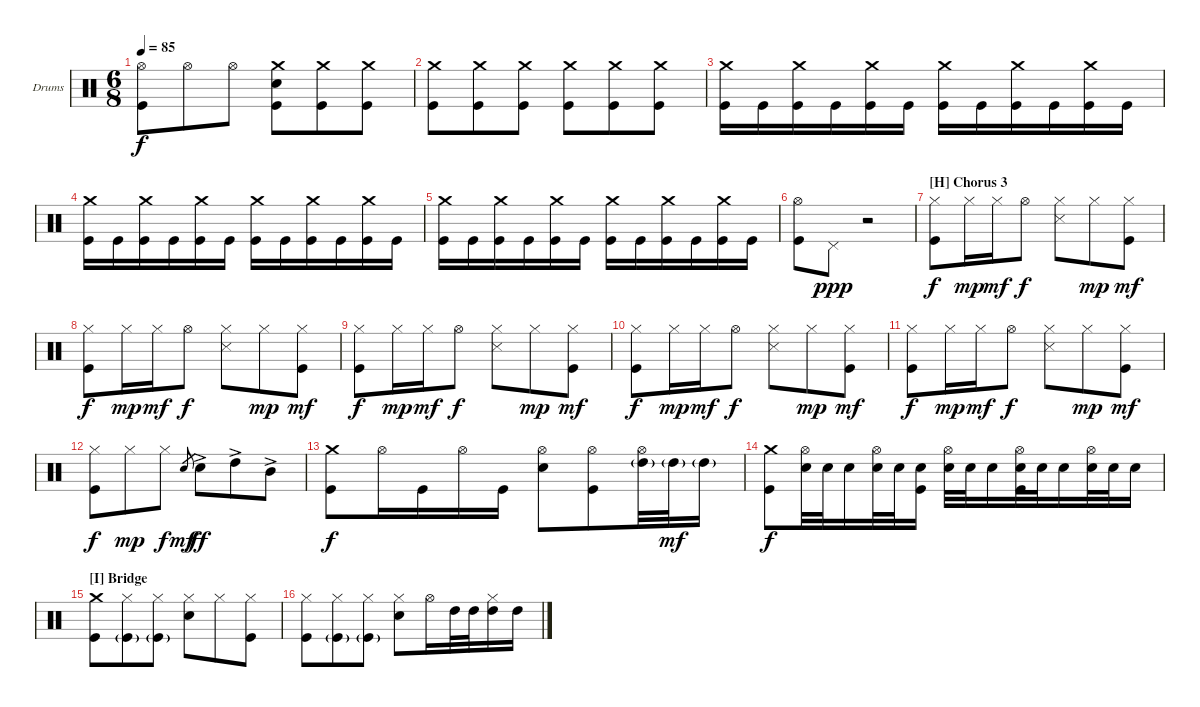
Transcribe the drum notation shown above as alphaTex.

\defaultSystemsLayout 4
\bracketExtendMode groupsimilarinstruments
\firstSystemTrackNameOrientation horizontal
\otherSystemsTrackNameOrientation horizontal
\track ("Drums" "Drums") {instrument percussion}
\staff {score}
\articulation defaults
\ts (6 8)
\tempo 85
\clef neutral
\ks c
("Hi-Hat (open)" "Kick (hit)").8{dy f} "Hi-Hat (open)".8 "Hi-Hat (open)".8 ("Crash medium (hit)" "Snare (hit) 2" "Kick (hit)").8 ("Crash medium (hit)" "Kick (hit)").8 ("Crash medium (hit)" "Kick (hit)").8 |
("Crash medium (hit)" "Kick (hit)").8 ("Crash medium (hit)" "Kick (hit)").8 ("Crash medium (hit)" "Kick (hit)").8 ("Crash medium (hit)" "Kick (hit)").8 ("Crash medium (hit)" "Kick (hit)").8 ("Crash medium (hit)" "Kick (hit)").8 |
("Crash medium (hit)" "Kick (hit)").16 "Kick (hit)".16 ("Crash medium (hit)" "Kick (hit)").16 "Kick (hit)".16 ("Crash medium (hit)" "Kick (hit)").16 "Kick (hit)".16 ("Crash medium (hit)" "Kick (hit)").16 "Kick (hit)".16 ("Crash medium (hit)" "Kick (hit)").16 "Kick (hit)".16 ("Crash medium (hit)" "Kick (hit)").16 "Kick (hit)".16 |
("Crash medium (hit)" "Kick (hit)").16 "Kick (hit)".16 ("Crash medium (hit)" "Kick (hit)").16 "Kick (hit)".16 ("Crash medium (hit)" "Kick (hit)").16 "Kick (hit)".16 ("Crash medium (hit)" "Kick (hit)").16 "Kick (hit)".16 ("Crash medium (hit)" "Kick (hit)").16 "Kick (hit)".16 ("Crash medium (hit)" "Kick (hit)").16 "Kick (hit)".16 |
("Crash medium (hit)" "Kick (hit)").16 "Kick (hit)".16 ("Crash medium (hit)" "Kick (hit)").16 "Kick (hit)".16 ("Crash medium (hit)" "Kick (hit)").16 "Kick (hit)".16 ("Crash medium (hit)" "Kick (hit)").16 "Kick (hit)".16 ("Crash medium (hit)" "Kick (hit)").16 "Kick (hit)".16 ("Crash medium (hit)" "Kick (hit)").16 "Kick (hit)".16 |
("Hi-Hat (open)" "Kick (hit)").8 "Pedal Hi-Hat (hit)".8{dy ppp} r.2 |
\section ("H" "Chorus 3")
("Hi-Hat (closed)" "Kick (hit)").8{dy f} "Hi-Hat (closed)".16{dy mp} "Hi-Hat (closed)".16{dy mf} "Hi-Hat (open)".8{dy f} ("Hi-Hat (closed)" "Snare (side stick) 3").8 "Hi-Hat (closed)".8{dy mp} ("Hi-Hat (closed)" "Kick (hit)").8{dy mf} |
("Hi-Hat (closed)" "Kick (hit)").8{dy f} "Hi-Hat (closed)".16{dy mp} "Hi-Hat (closed)".16{dy mf} "Hi-Hat (open)".8{dy f} ("Hi-Hat (closed)" "Snare (side stick) 3").8 "Hi-Hat (closed)".8{dy mp} ("Hi-Hat (closed)" "Kick (hit)").8{dy mf} |
("Hi-Hat (closed)" "Kick (hit)").8{dy f} "Hi-Hat (closed)".16{dy mp} "Hi-Hat (closed)".16{dy mf} "Hi-Hat (open)".8{dy f} ("Hi-Hat (closed)" "Snare (side stick) 3").8 "Hi-Hat (closed)".8{dy mp} ("Hi-Hat (closed)" "Kick (hit)").8{dy mf} |
("Hi-Hat (closed)" "Kick (hit)").8{dy f} "Hi-Hat (closed)".16{dy mp} "Hi-Hat (closed)".16{dy mf} "Hi-Hat (open)".8{dy f} ("Hi-Hat (closed)" "Snare (side stick) 3").8 "Hi-Hat (closed)".8{dy mp} ("Hi-Hat (closed)" "Kick (hit)").8{dy mf} |
("Hi-Hat (closed)" "Kick (hit)").8{dy f} "Hi-Hat (closed)".16{dy mp} "Hi-Hat (closed)".16{dy mf} "Hi-Hat (open)".8{dy f} ("Hi-Hat (closed)" "Snare (side stick) 3").8 "Hi-Hat (closed)".8{dy mp} ("Hi-Hat (closed)" "Kick (hit)").8{dy mf} |
("Hi-Hat (closed)" "Kick (hit)").8{dy f} "Hi-Hat (closed)".8{dy mp} "Hi-Hat (closed)".8{dy f} "Snare (hit) 2".8{gr dy mf} "Snare (hit) 2"{ac}.8{dy ff} "High Tom (hit)"{ac}.8 "Mid Tom (hit)"{ac}.8 |
("Crash medium (hit)" "Kick (hit)").8{dy f} "Hi-Hat (open)".16 "Kick (hit)".16 "Hi-Hat (open)".16 "Kick (hit)".16 ("Hi-Hat (open)" "Snare (hit) 2").8 ("Hi-Hat (open)" "Kick (hit)").8 ("Hi-Hat (open)" "High Tom (hit)"{g}).32 "High Tom (hit)"{g}.32{dy mf} "High Tom (hit)"{g}.16 |
("Crash medium (hit)" "Kick (hit)").8{dy f} ("Hi-Hat (open)" "Snare (hit) 2").32 "Snare (hit) 2".32 "Snare (hit) 2".16 ("Hi-Hat (open)" "Snare (hit) 2").32 "Snare (hit) 2".32 ("Snare (hit) 2" "Kick (hit)").16 ("Hi-Hat (open)" "Snare (hit) 2").32 "Snare (hit) 2".32 "Snare (hit) 2".16 ("Hi-Hat (open)" "Snare (hit) 2" "Kick (hit)").32 "Snare (hit) 2".32 "Snare (hit) 2".16 ("Hi-Hat (open)" "Snare (hit) 2").32 "Snare (hit) 2".32 "Snare (hit) 2".16 |
\section ("I" "Bridge")
("Crash medium (hit)" "Kick (hit)").8 ("Hi-Hat (closed)" "Kick (hit)"{g}).8 ("Hi-Hat (closed)" "Kick (hit)"{g}).8 ("Hi-Hat (closed)" "Snare (hit) 2").8 "Hi-Hat (closed)".8 ("Hi-Hat (closed)" "Kick (hit)").8 |
("Hi-Hat (closed)" "Kick (hit)").8 ("Hi-Hat (closed)" "Kick (hit)"{g}).8 ("Hi-Hat (closed)" "Kick (hit)"{g}).8 ("Hi-Hat (closed)" "Snare (hit) 2").8 "Hi-Hat (open)".16 "High Tom (hit)".32 "High Tom (hit)".32 ("Hi-Hat (closed)" "High Tom (hit)").16 "High Tom (hit)".16
